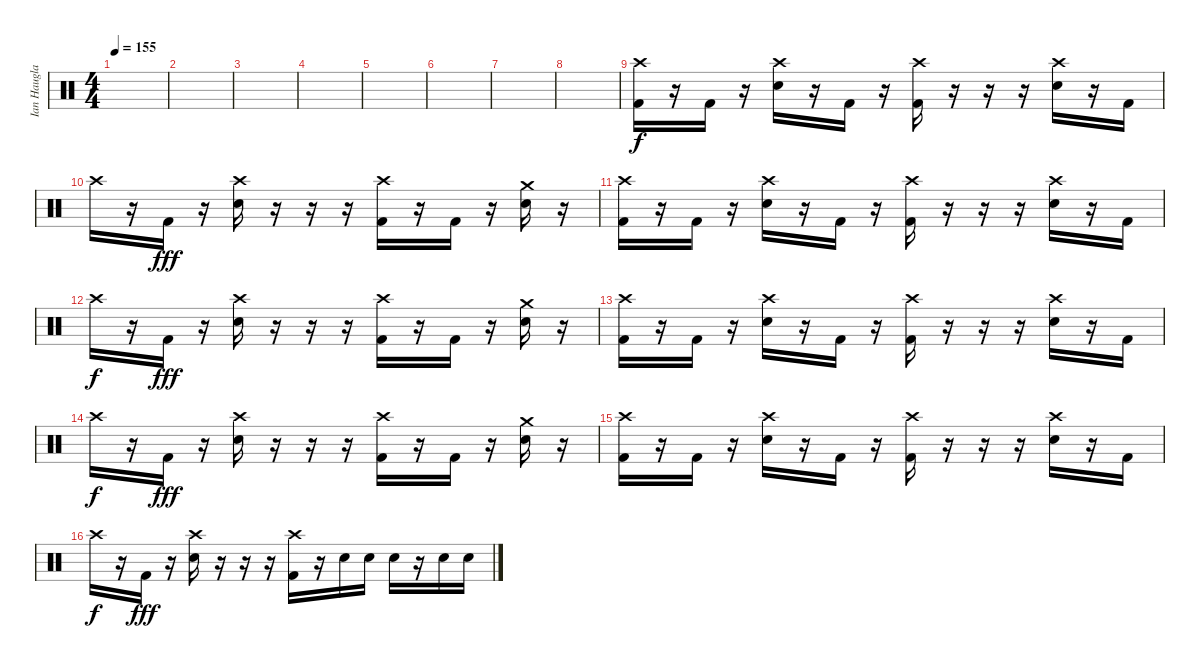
\track ("Ian Haugland" "Ian Haugla") {instrument percussion}
\staff {score}
\articulation defaults
\ts (4 4)
\tempo 155
\clef neutral
\ks c
|
|
|
|
|
|
|
|
("Crash high (hit)" "Kick (hit) 2").16 r.16 "Kick (hit) 2".16 r.16 ("Crash high (hit)" "Electric Snare (hit)").16 r.16 "Kick (hit) 2".16 r.16 ("Crash high (hit)" "Kick (hit) 2").16 r.16 r.16 r.16 ("Crash high (hit)" "Electric Snare (hit)").16 r.16 "Kick (hit) 2".16 |
"Crash high (hit)".16{dy f} r.16 "Kick (hit) 2".16{dy fff} r.16 ("Crash high (hit)" "Electric Snare (hit)").16 r.16 r.16 r.16 ("Crash high (hit)" "Kick (hit) 2").16 r.16 "Kick (hit) 2".16 r.16 ("Crash medium (hit)" "Electric Snare (hit)").16 r.16 |
("Crash high (hit)" "Kick (hit) 2").16 r.16 "Kick (hit) 2".16 r.16 ("Crash high (hit)" "Electric Snare (hit)").16 r.16 "Kick (hit) 2".16 r.16 ("Crash high (hit)" "Kick (hit) 2").16 r.16 r.16 r.16 ("Crash high (hit)" "Electric Snare (hit)").16 r.16 "Kick (hit) 2".16 |
"Crash high (hit)".16{dy f} r.16 "Kick (hit) 2".16{dy fff} r.16 ("Crash high (hit)" "Electric Snare (hit)").16 r.16 r.16 r.16 ("Crash high (hit)" "Kick (hit) 2").16 r.16 "Kick (hit) 2".16 r.16 ("Crash medium (hit)" "Electric Snare (hit)").16 r.16 |
("Crash high (hit)" "Kick (hit) 2").16 r.16 "Kick (hit) 2".16 r.16 ("Crash high (hit)" "Electric Snare (hit)").16 r.16 "Kick (hit) 2".16 r.16 ("Crash high (hit)" "Kick (hit) 2").16 r.16 r.16 r.16 ("Crash high (hit)" "Electric Snare (hit)").16 r.16 "Kick (hit) 2".16 |
"Crash high (hit)".16{dy f} r.16 "Kick (hit) 2".16{dy fff} r.16 ("Crash high (hit)" "Electric Snare (hit)").16 r.16 r.16 r.16 ("Crash high (hit)" "Kick (hit) 2").16 r.16 "Kick (hit) 2".16 r.16 ("Crash medium (hit)" "Electric Snare (hit)").16 r.16 |
("Crash high (hit)" "Kick (hit) 2").16 r.16 "Kick (hit) 2".16 r.16 ("Crash high (hit)" "Electric Snare (hit)").16 r.16 "Kick (hit) 2".16 r.16 ("Crash high (hit)" "Kick (hit) 2").16 r.16 r.16 r.16 ("Crash high (hit)" "Electric Snare (hit)").16 r.16 "Kick (hit) 2".16 |
"Crash high (hit)".16{dy f} r.16 "Kick (hit) 2".16{dy fff} r.16 ("Crash high (hit)" "Electric Snare (hit)").16 r.16 r.16 r.16 ("Crash high (hit)" "Kick (hit) 2").16 r.16 "Electric Snare (hit)".16 "Electric Snare (hit)".16 "Electric Snare (hit)".16 r.16 "Electric Snare (hit)".16 "Electric Snare (hit)".16
